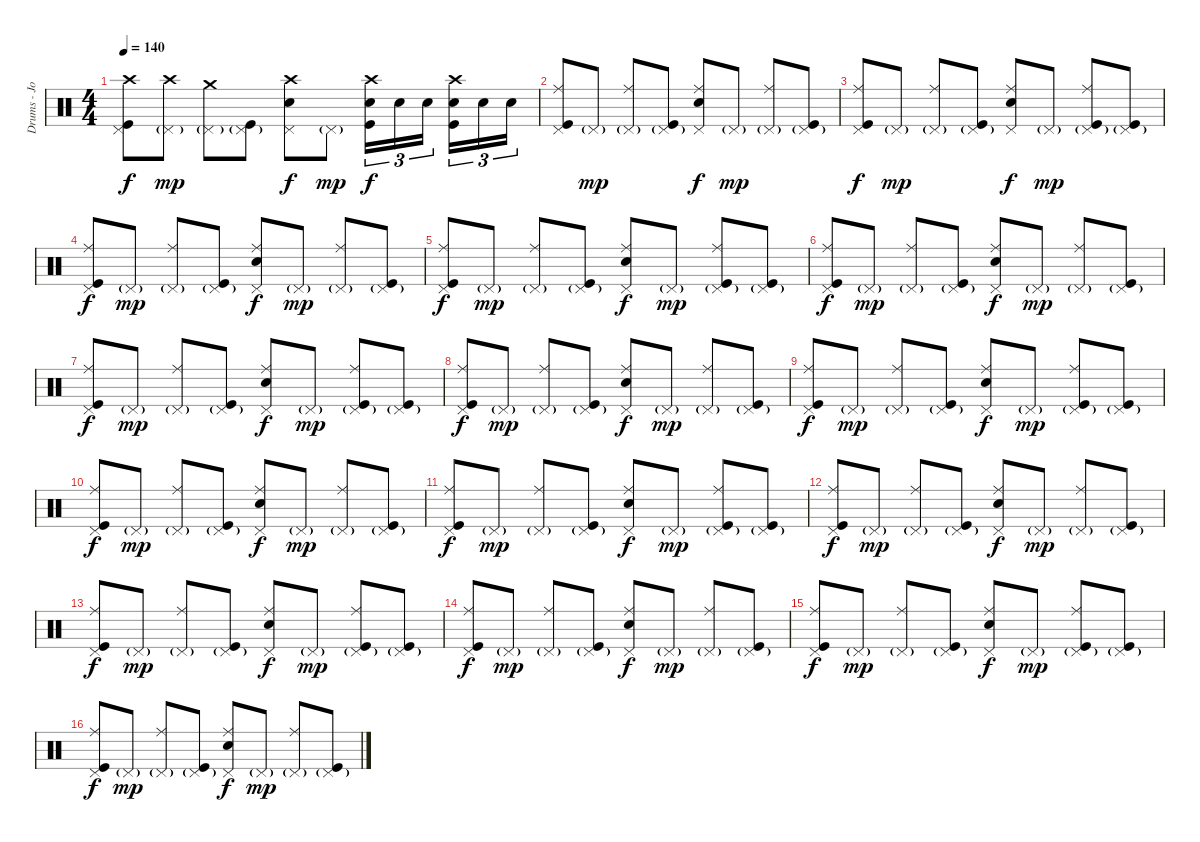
\track ("Drums - Josh Klinghoffer" "Drums - Jo") {instrument percussion}
\staff {score}
\articulation defaults
\ts (4 4)
\tempo 140
\clef neutral
\ks c
("Crash high (hit)" "Pedal Hi-Hat (hit)" "Kick (hit)").8{dy f} ("Crash high (hit)" "Pedal Hi-Hat (hit)"{g}).8{dy mp} ("Crash medium (hit)" "Pedal Hi-Hat (hit)"{g}).8 ("Pedal Hi-Hat (hit)"{g} "Kick (hit)").8 ("Crash high (hit)" "Pedal Hi-Hat (hit)" "Electric Snare (hit)").8{dy f} "Pedal Hi-Hat (hit)"{g}.8{dy mp} ("Crash high (hit)" "Electric Snare (hit)" "Kick (hit)").16{tu (3 2) dy f} "Electric Snare (hit)".16{tu (3 2)} "Electric Snare (hit)".16{tu (3 2) beam splitsecondary} ("Crash high (hit)" "Electric Snare (hit)" "Kick (hit)").16{tu (3 2)} "Electric Snare (hit)".16{tu (3 2)} "Electric Snare (hit)".16{tu (3 2)} |
("Ride (middle)" "Pedal Hi-Hat (hit)" "Kick (hit)").8 "Pedal Hi-Hat (hit)"{g}.8{dy mp} ("Ride (middle)" "Pedal Hi-Hat (hit)"{g}).8 ("Pedal Hi-Hat (hit)"{g} "Kick (hit)").8 ("Ride (middle)" "Pedal Hi-Hat (hit)" "Electric Snare (hit)").8{dy f} "Pedal Hi-Hat (hit)"{g}.8{dy mp} ("Ride (middle)" "Pedal Hi-Hat (hit)"{g}).8 ("Pedal Hi-Hat (hit)"{g} "Kick (hit)").8 |
("Ride (middle)" "Pedal Hi-Hat (hit)" "Kick (hit)").8{dy f} "Pedal Hi-Hat (hit)"{g}.8{dy mp} ("Ride (middle)" "Pedal Hi-Hat (hit)"{g}).8 ("Pedal Hi-Hat (hit)"{g} "Kick (hit)").8 ("Ride (middle)" "Pedal Hi-Hat (hit)" "Electric Snare (hit)").8{dy f} "Pedal Hi-Hat (hit)"{g}.8{dy mp} ("Ride (middle)" "Pedal Hi-Hat (hit)"{g} "Kick (hit)").8 ("Pedal Hi-Hat (hit)"{g} "Kick (hit)").8 |
("Ride (middle)" "Pedal Hi-Hat (hit)" "Kick (hit)").8{dy f} "Pedal Hi-Hat (hit)"{g}.8{dy mp} ("Ride (middle)" "Pedal Hi-Hat (hit)"{g}).8 ("Pedal Hi-Hat (hit)"{g} "Kick (hit)").8 ("Ride (middle)" "Pedal Hi-Hat (hit)" "Electric Snare (hit)").8{dy f} "Pedal Hi-Hat (hit)"{g}.8{dy mp} ("Ride (middle)" "Pedal Hi-Hat (hit)"{g}).8 ("Pedal Hi-Hat (hit)"{g} "Kick (hit)").8 |
("Ride (middle)" "Pedal Hi-Hat (hit)" "Kick (hit)").8{dy f} "Pedal Hi-Hat (hit)"{g}.8{dy mp} ("Ride (middle)" "Pedal Hi-Hat (hit)"{g}).8 ("Pedal Hi-Hat (hit)"{g} "Kick (hit)").8 ("Ride (middle)" "Pedal Hi-Hat (hit)" "Electric Snare (hit)").8{dy f} "Pedal Hi-Hat (hit)"{g}.8{dy mp} ("Ride (middle)" "Pedal Hi-Hat (hit)"{g} "Kick (hit)").8 ("Pedal Hi-Hat (hit)"{g} "Kick (hit)").8 |
("Ride (middle)" "Pedal Hi-Hat (hit)" "Kick (hit)").8{dy f} "Pedal Hi-Hat (hit)"{g}.8{dy mp} ("Ride (middle)" "Pedal Hi-Hat (hit)"{g}).8 ("Pedal Hi-Hat (hit)"{g} "Kick (hit)").8 ("Ride (middle)" "Pedal Hi-Hat (hit)" "Electric Snare (hit)").8{dy f} "Pedal Hi-Hat (hit)"{g}.8{dy mp} ("Ride (middle)" "Pedal Hi-Hat (hit)"{g}).8 ("Pedal Hi-Hat (hit)"{g} "Kick (hit)").8 |
("Ride (middle)" "Pedal Hi-Hat (hit)" "Kick (hit)").8{dy f} "Pedal Hi-Hat (hit)"{g}.8{dy mp} ("Ride (middle)" "Pedal Hi-Hat (hit)"{g}).8 ("Pedal Hi-Hat (hit)"{g} "Kick (hit)").8 ("Ride (middle)" "Pedal Hi-Hat (hit)" "Electric Snare (hit)").8{dy f} "Pedal Hi-Hat (hit)"{g}.8{dy mp} ("Ride (middle)" "Pedal Hi-Hat (hit)"{g} "Kick (hit)").8 ("Pedal Hi-Hat (hit)"{g} "Kick (hit)").8 |
("Ride (middle)" "Pedal Hi-Hat (hit)" "Kick (hit)").8{dy f} "Pedal Hi-Hat (hit)"{g}.8{dy mp} ("Ride (middle)" "Pedal Hi-Hat (hit)"{g}).8 ("Pedal Hi-Hat (hit)"{g} "Kick (hit)").8 ("Ride (middle)" "Pedal Hi-Hat (hit)" "Electric Snare (hit)").8{dy f} "Pedal Hi-Hat (hit)"{g}.8{dy mp} ("Ride (middle)" "Pedal Hi-Hat (hit)"{g}).8 ("Pedal Hi-Hat (hit)"{g} "Kick (hit)").8 |
("Ride (middle)" "Pedal Hi-Hat (hit)" "Kick (hit)").8{dy f} "Pedal Hi-Hat (hit)"{g}.8{dy mp} ("Ride (middle)" "Pedal Hi-Hat (hit)"{g}).8 ("Pedal Hi-Hat (hit)"{g} "Kick (hit)").8 ("Ride (middle)" "Pedal Hi-Hat (hit)" "Electric Snare (hit)").8{dy f} "Pedal Hi-Hat (hit)"{g}.8{dy mp} ("Ride (middle)" "Pedal Hi-Hat (hit)"{g} "Kick (hit)").8 ("Pedal Hi-Hat (hit)"{g} "Kick (hit)").8 |
("Ride (middle)" "Pedal Hi-Hat (hit)" "Kick (hit)").8{dy f} "Pedal Hi-Hat (hit)"{g}.8{dy mp} ("Ride (middle)" "Pedal Hi-Hat (hit)"{g}).8 ("Pedal Hi-Hat (hit)"{g} "Kick (hit)").8 ("Ride (middle)" "Pedal Hi-Hat (hit)" "Electric Snare (hit)").8{dy f} "Pedal Hi-Hat (hit)"{g}.8{dy mp} ("Ride (middle)" "Pedal Hi-Hat (hit)"{g}).8 ("Pedal Hi-Hat (hit)"{g} "Kick (hit)").8 |
("Ride (middle)" "Pedal Hi-Hat (hit)" "Kick (hit)").8{dy f} "Pedal Hi-Hat (hit)"{g}.8{dy mp} ("Ride (middle)" "Pedal Hi-Hat (hit)"{g}).8 ("Pedal Hi-Hat (hit)"{g} "Kick (hit)").8 ("Ride (middle)" "Pedal Hi-Hat (hit)" "Electric Snare (hit)").8{dy f} "Pedal Hi-Hat (hit)"{g}.8{dy mp} ("Ride (middle)" "Pedal Hi-Hat (hit)"{g} "Kick (hit)").8 ("Pedal Hi-Hat (hit)"{g} "Kick (hit)").8 |
("Ride (middle)" "Pedal Hi-Hat (hit)" "Kick (hit)").8{dy f} "Pedal Hi-Hat (hit)"{g}.8{dy mp} ("Ride (middle)" "Pedal Hi-Hat (hit)"{g}).8 ("Pedal Hi-Hat (hit)"{g} "Kick (hit)").8 ("Ride (middle)" "Pedal Hi-Hat (hit)" "Electric Snare (hit)").8{dy f} "Pedal Hi-Hat (hit)"{g}.8{dy mp} ("Ride (middle)" "Pedal Hi-Hat (hit)"{g}).8 ("Pedal Hi-Hat (hit)"{g} "Kick (hit)").8 |
("Ride (middle)" "Pedal Hi-Hat (hit)" "Kick (hit)").8{dy f} "Pedal Hi-Hat (hit)"{g}.8{dy mp} ("Ride (middle)" "Pedal Hi-Hat (hit)"{g}).8 ("Pedal Hi-Hat (hit)"{g} "Kick (hit)").8 ("Ride (middle)" "Pedal Hi-Hat (hit)" "Electric Snare (hit)").8{dy f} "Pedal Hi-Hat (hit)"{g}.8{dy mp} ("Ride (middle)" "Pedal Hi-Hat (hit)"{g} "Kick (hit)").8 ("Pedal Hi-Hat (hit)"{g} "Kick (hit)").8 |
("Ride (middle)" "Pedal Hi-Hat (hit)" "Kick (hit)").8{dy f} "Pedal Hi-Hat (hit)"{g}.8{dy mp} ("Ride (middle)" "Pedal Hi-Hat (hit)"{g}).8 ("Pedal Hi-Hat (hit)"{g} "Kick (hit)").8 ("Ride (middle)" "Pedal Hi-Hat (hit)" "Electric Snare (hit)").8{dy f} "Pedal Hi-Hat (hit)"{g}.8{dy mp} ("Ride (middle)" "Pedal Hi-Hat (hit)"{g}).8 ("Pedal Hi-Hat (hit)"{g} "Kick (hit)").8 |
("Ride (middle)" "Pedal Hi-Hat (hit)" "Kick (hit)").8{dy f} "Pedal Hi-Hat (hit)"{g}.8{dy mp} ("Ride (middle)" "Pedal Hi-Hat (hit)"{g}).8 ("Pedal Hi-Hat (hit)"{g} "Kick (hit)").8 ("Ride (middle)" "Pedal Hi-Hat (hit)" "Electric Snare (hit)").8{dy f} "Pedal Hi-Hat (hit)"{g}.8{dy mp} ("Ride (middle)" "Pedal Hi-Hat (hit)"{g} "Kick (hit)").8 ("Pedal Hi-Hat (hit)"{g} "Kick (hit)").8 |
("Ride (middle)" "Pedal Hi-Hat (hit)" "Kick (hit)").8{dy f} "Pedal Hi-Hat (hit)"{g}.8{dy mp} ("Ride (middle)" "Pedal Hi-Hat (hit)"{g}).8 ("Pedal Hi-Hat (hit)"{g} "Kick (hit)").8 ("Ride (middle)" "Pedal Hi-Hat (hit)" "Electric Snare (hit)").8{dy f} "Pedal Hi-Hat (hit)"{g}.8{dy mp} ("Ride (middle)" "Pedal Hi-Hat (hit)"{g}).8 ("Pedal Hi-Hat (hit)"{g} "Kick (hit)").8
